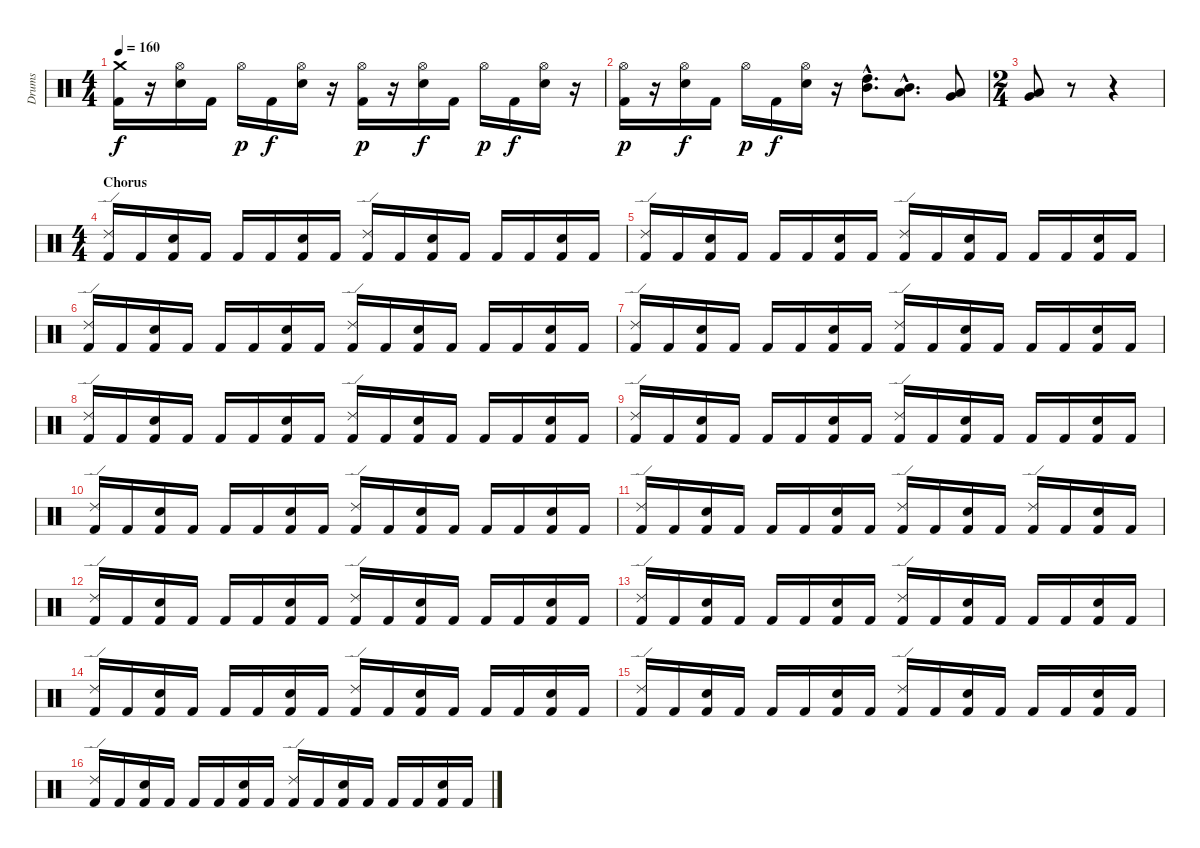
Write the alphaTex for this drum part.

\track ("Drums" "Drums") {instrument percussion}
\staff {score}
\articulation defaults
\ts (4 4)
\tempo 160
\clef neutral
\ks c
("Crash medium (hit)" "Kick (hit) 2").16{dy f} r.16 ("Hi-Hat (open)" "Electric Snare (hit)").16 "Kick (hit) 2".16 "Hi-Hat (open)".16{dy p} "Kick (hit) 2".16{dy f} ("Hi-Hat (open)" "Electric Snare (hit)").16 r.16 ("Hi-Hat (open)" "Kick (hit) 2").16{dy p} r.16 ("Hi-Hat (open)" "Electric Snare (hit)").16{dy f} "Kick (hit) 2".16 "Hi-Hat (open)".16{dy p} "Kick (hit) 2".16{dy f} ("Hi-Hat (open)" "Electric Snare (hit)").16 r.16 |
("Hi-Hat (open)" "Kick (hit) 2").16{dy p} r.16 ("Hi-Hat (open)" "Electric Snare (hit)").16{dy f} "Kick (hit) 2".16 "Hi-Hat (open)".16{dy p} "Kick (hit) 2".16{dy f} ("Hi-Hat (open)" "Electric Snare (hit)").16 r.16 ("High Tom (hit)"{hac} "Mid Tom (hit)"{hac}).8{d} ("Mid Tom (hit)"{hac} "Low Tom (hit)"{hac}).8{d} ("Low Tom (hit)" "Very Low Tom (hit)").8 |
\ts (2 4)
("Very Low Tom (hit)" "Low Floor Tom (hit)").8 r.8 r.4 |
\ts (4 4)
\section ("" "Chorus")
("Ride (edge) 2" "Kick (hit) 2").16 "Kick (hit) 2".16 ("Electric Snare (hit)" "Kick (hit) 2").16 "Kick (hit) 2".16 "Kick (hit) 2".16 "Kick (hit) 2".16 ("Electric Snare (hit)" "Kick (hit) 2").16 "Kick (hit) 2".16 ("Ride (edge) 2" "Kick (hit) 2").16 "Kick (hit) 2".16 ("Electric Snare (hit)" "Kick (hit) 2").16 "Kick (hit) 2".16 "Kick (hit) 2".16 "Kick (hit) 2".16 ("Electric Snare (hit)" "Kick (hit) 2").16 "Kick (hit) 2".16 |
("Ride (edge) 2" "Kick (hit) 2").16 "Kick (hit) 2".16 ("Electric Snare (hit)" "Kick (hit) 2").16 "Kick (hit) 2".16 "Kick (hit) 2".16 "Kick (hit) 2".16 ("Electric Snare (hit)" "Kick (hit) 2").16 "Kick (hit) 2".16 ("Ride (edge) 2" "Kick (hit) 2").16 "Kick (hit) 2".16 ("Electric Snare (hit)" "Kick (hit) 2").16 "Kick (hit) 2".16 "Kick (hit) 2".16 "Kick (hit) 2".16 ("Electric Snare (hit)" "Kick (hit) 2").16 "Kick (hit) 2".16 |
("Ride (edge) 2" "Kick (hit) 2").16 "Kick (hit) 2".16 ("Electric Snare (hit)" "Kick (hit) 2").16 "Kick (hit) 2".16 "Kick (hit) 2".16 "Kick (hit) 2".16 ("Electric Snare (hit)" "Kick (hit) 2").16 "Kick (hit) 2".16 ("Ride (edge) 2" "Kick (hit) 2").16 "Kick (hit) 2".16 ("Electric Snare (hit)" "Kick (hit) 2").16 "Kick (hit) 2".16 "Kick (hit) 2".16 "Kick (hit) 2".16 ("Electric Snare (hit)" "Kick (hit) 2").16 "Kick (hit) 2".16 |
("Ride (edge) 2" "Kick (hit) 2").16 "Kick (hit) 2".16 ("Electric Snare (hit)" "Kick (hit) 2").16 "Kick (hit) 2".16 "Kick (hit) 2".16 "Kick (hit) 2".16 ("Electric Snare (hit)" "Kick (hit) 2").16 "Kick (hit) 2".16 ("Ride (edge) 2" "Kick (hit) 2").16 "Kick (hit) 2".16 ("Electric Snare (hit)" "Kick (hit) 2").16 "Kick (hit) 2".16 "Kick (hit) 2".16 "Kick (hit) 2".16 ("Electric Snare (hit)" "Kick (hit) 2").16 "Kick (hit) 2".16 |
("Ride (edge) 2" "Kick (hit) 2").16 "Kick (hit) 2".16 ("Electric Snare (hit)" "Kick (hit) 2").16 "Kick (hit) 2".16 "Kick (hit) 2".16 "Kick (hit) 2".16 ("Electric Snare (hit)" "Kick (hit) 2").16 "Kick (hit) 2".16 ("Ride (edge) 2" "Kick (hit) 2").16 "Kick (hit) 2".16 ("Electric Snare (hit)" "Kick (hit) 2").16 "Kick (hit) 2".16 "Kick (hit) 2".16 "Kick (hit) 2".16 ("Electric Snare (hit)" "Kick (hit) 2").16 "Kick (hit) 2".16 |
("Ride (edge) 2" "Kick (hit) 2").16 "Kick (hit) 2".16 ("Electric Snare (hit)" "Kick (hit) 2").16 "Kick (hit) 2".16 "Kick (hit) 2".16 "Kick (hit) 2".16 ("Electric Snare (hit)" "Kick (hit) 2").16 "Kick (hit) 2".16 ("Ride (edge) 2" "Kick (hit) 2").16 "Kick (hit) 2".16 ("Electric Snare (hit)" "Kick (hit) 2").16 "Kick (hit) 2".16 "Kick (hit) 2".16 "Kick (hit) 2".16 ("Electric Snare (hit)" "Kick (hit) 2").16 "Kick (hit) 2".16 |
("Ride (edge) 2" "Kick (hit) 2").16 "Kick (hit) 2".16 ("Electric Snare (hit)" "Kick (hit) 2").16 "Kick (hit) 2".16 "Kick (hit) 2".16 "Kick (hit) 2".16 ("Electric Snare (hit)" "Kick (hit) 2").16 "Kick (hit) 2".16 ("Ride (edge) 2" "Kick (hit) 2").16 "Kick (hit) 2".16 ("Electric Snare (hit)" "Kick (hit) 2").16 "Kick (hit) 2".16 "Kick (hit) 2".16 "Kick (hit) 2".16 ("Electric Snare (hit)" "Kick (hit) 2").16 "Kick (hit) 2".16 |
("Ride (edge) 2" "Kick (hit) 2").16 "Kick (hit) 2".16 ("Electric Snare (hit)" "Kick (hit) 2").16 "Kick (hit) 2".16 "Kick (hit) 2".16 "Kick (hit) 2".16 ("Electric Snare (hit)" "Kick (hit) 2").16 "Kick (hit) 2".16 ("Ride (edge) 2" "Kick (hit) 2").16 "Kick (hit) 2".16 ("Electric Snare (hit)" "Kick (hit) 2").16 "Kick (hit) 2".16 ("Ride (edge) 2" "Kick (hit) 2").16 "Kick (hit) 2".16 ("Electric Snare (hit)" "Kick (hit) 2").16 "Kick (hit) 2".16 |
("Ride (edge) 2" "Kick (hit) 2").16 "Kick (hit) 2".16 ("Electric Snare (hit)" "Kick (hit) 2").16 "Kick (hit) 2".16 "Kick (hit) 2".16 "Kick (hit) 2".16 ("Electric Snare (hit)" "Kick (hit) 2").16 "Kick (hit) 2".16 ("Ride (edge) 2" "Kick (hit) 2").16 "Kick (hit) 2".16 ("Electric Snare (hit)" "Kick (hit) 2").16 "Kick (hit) 2".16 "Kick (hit) 2".16 "Kick (hit) 2".16 ("Electric Snare (hit)" "Kick (hit) 2").16 "Kick (hit) 2".16 |
("Ride (edge) 2" "Kick (hit) 2").16 "Kick (hit) 2".16 ("Electric Snare (hit)" "Kick (hit) 2").16 "Kick (hit) 2".16 "Kick (hit) 2".16 "Kick (hit) 2".16 ("Electric Snare (hit)" "Kick (hit) 2").16 "Kick (hit) 2".16 ("Ride (edge) 2" "Kick (hit) 2").16 "Kick (hit) 2".16 ("Electric Snare (hit)" "Kick (hit) 2").16 "Kick (hit) 2".16 "Kick (hit) 2".16 "Kick (hit) 2".16 ("Electric Snare (hit)" "Kick (hit) 2").16 "Kick (hit) 2".16 |
("Ride (edge) 2" "Kick (hit) 2").16 "Kick (hit) 2".16 ("Electric Snare (hit)" "Kick (hit) 2").16 "Kick (hit) 2".16 "Kick (hit) 2".16 "Kick (hit) 2".16 ("Electric Snare (hit)" "Kick (hit) 2").16 "Kick (hit) 2".16 ("Ride (edge) 2" "Kick (hit) 2").16 "Kick (hit) 2".16 ("Electric Snare (hit)" "Kick (hit) 2").16 "Kick (hit) 2".16 "Kick (hit) 2".16 "Kick (hit) 2".16 ("Electric Snare (hit)" "Kick (hit) 2").16 "Kick (hit) 2".16 |
("Ride (edge) 2" "Kick (hit) 2").16 "Kick (hit) 2".16 ("Electric Snare (hit)" "Kick (hit) 2").16 "Kick (hit) 2".16 "Kick (hit) 2".16 "Kick (hit) 2".16 ("Electric Snare (hit)" "Kick (hit) 2").16 "Kick (hit) 2".16 ("Ride (edge) 2" "Kick (hit) 2").16 "Kick (hit) 2".16 ("Electric Snare (hit)" "Kick (hit) 2").16 "Kick (hit) 2".16 "Kick (hit) 2".16 "Kick (hit) 2".16 ("Electric Snare (hit)" "Kick (hit) 2").16 "Kick (hit) 2".16 |
("Ride (edge) 2" "Kick (hit) 2").16 "Kick (hit) 2".16 ("Electric Snare (hit)" "Kick (hit) 2").16 "Kick (hit) 2".16 "Kick (hit) 2".16 "Kick (hit) 2".16 ("Electric Snare (hit)" "Kick (hit) 2").16 "Kick (hit) 2".16 ("Ride (edge) 2" "Kick (hit) 2").16 "Kick (hit) 2".16 ("Electric Snare (hit)" "Kick (hit) 2").16 "Kick (hit) 2".16 "Kick (hit) 2".16 "Kick (hit) 2".16 ("Electric Snare (hit)" "Kick (hit) 2").16 "Kick (hit) 2".16
